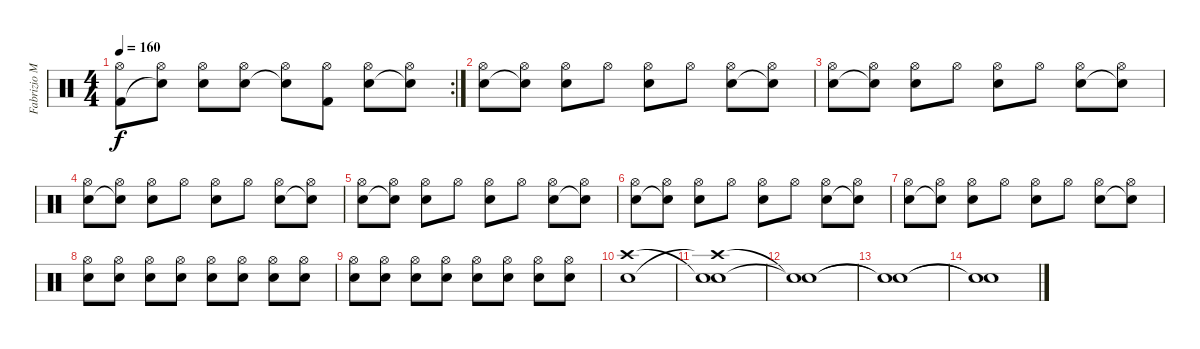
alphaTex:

\track ("Fabrizio Moretti" "Fabrizio M") {instrument percussion}
\staff {score}
\articulation defaults
\rc 2
\ts (4 4)
\tempo 160
\clef neutral
\ks c
("Hi-Hat (open)" "Kick (hit) 2").8{dy f} ("Hi-Hat (open)" "Snare (hit)"{t}).8 ("Hi-Hat (open)" "Electric Snare (hit)").8 ("Hi-Hat (open)" "Electric Snare (hit)").8 ("Hi-Hat (open)" "Snare (hit)"{t}).8 ("Hi-Hat (open)" "Kick (hit) 2").8 ("Hi-Hat (open)" "Electric Snare (hit)").8 ("Hi-Hat (open)" "Snare (hit)"{t}).8 |
("Hi-Hat (open)" "Electric Snare (hit)").8 ("Hi-Hat (open)" "Snare (hit)"{t}).8 ("Hi-Hat (open)" "Electric Snare (hit)").8 "Hi-Hat (open)".8 ("Hi-Hat (open)" "Electric Snare (hit)").8 "Hi-Hat (open)".8 ("Hi-Hat (open)" "Electric Snare (hit)").8 ("Hi-Hat (open)" "Snare (hit)"{t}).8 |
("Hi-Hat (open)" "Electric Snare (hit)").8 ("Hi-Hat (open)" "Snare (hit)"{t}).8 ("Hi-Hat (open)" "Electric Snare (hit)").8 "Hi-Hat (open)".8 ("Hi-Hat (open)" "Electric Snare (hit)").8 "Hi-Hat (open)".8 ("Hi-Hat (open)" "Electric Snare (hit)").8 ("Hi-Hat (open)" "Snare (hit)"{t}).8 |
("Hi-Hat (open)" "Electric Snare (hit)").8 ("Hi-Hat (open)" "Snare (hit)"{t}).8 ("Hi-Hat (open)" "Electric Snare (hit)").8 "Hi-Hat (open)".8 ("Hi-Hat (open)" "Electric Snare (hit)").8 "Hi-Hat (open)".8 ("Hi-Hat (open)" "Electric Snare (hit)").8 ("Hi-Hat (open)" "Snare (hit)"{t}).8 |
("Hi-Hat (open)" "Electric Snare (hit)").8 ("Hi-Hat (open)" "Snare (hit)"{t}).8 ("Hi-Hat (open)" "Electric Snare (hit)").8 "Hi-Hat (open)".8 ("Hi-Hat (open)" "Electric Snare (hit)").8 "Hi-Hat (open)".8 ("Hi-Hat (open)" "Electric Snare (hit)").8 ("Hi-Hat (open)" "Snare (hit)"{t}).8 |
("Hi-Hat (open)" "Electric Snare (hit)").8 ("Hi-Hat (open)" "Snare (hit)"{t}).8 ("Hi-Hat (open)" "Electric Snare (hit)").8 "Hi-Hat (open)".8 ("Hi-Hat (open)" "Electric Snare (hit)").8 "Hi-Hat (open)".8 ("Hi-Hat (open)" "Electric Snare (hit)").8 ("Hi-Hat (open)" "Snare (hit)"{t}).8 |
("Hi-Hat (open)" "Electric Snare (hit)").8 ("Hi-Hat (open)" "Snare (hit)"{t}).8 ("Hi-Hat (open)" "Electric Snare (hit)").8 "Hi-Hat (open)".8 ("Hi-Hat (open)" "Electric Snare (hit)").8 "Hi-Hat (open)".8 ("Hi-Hat (open)" "Electric Snare (hit)").8 ("Hi-Hat (open)" "Snare (hit)"{t}).8 |
("Hi-Hat (open)" "Electric Snare (hit)").8 ("Hi-Hat (open)" "Electric Snare (hit)").8 ("Hi-Hat (open)" "Electric Snare (hit)").8 ("Hi-Hat (open)" "Electric Snare (hit)").8 ("Hi-Hat (open)" "Electric Snare (hit)").8 ("Hi-Hat (open)" "Electric Snare (hit)").8 ("Hi-Hat (open)" "Electric Snare (hit)").8 ("Hi-Hat (open)" "Electric Snare (hit)").8 |
("Hi-Hat (open)" "Electric Snare (hit)").8 ("Hi-Hat (open)" "Electric Snare (hit)").8 ("Hi-Hat (open)" "Electric Snare (hit)").8 ("Hi-Hat (open)" "Electric Snare (hit)").8 ("Hi-Hat (open)" "Electric Snare (hit)").8 ("Hi-Hat (open)" "Electric Snare (hit)").8 ("Hi-Hat (open)" "Electric Snare (hit)").8 ("Hi-Hat (open)" "Electric Snare (hit)").8 |
("Crash high (hit)" "Electric Snare (hit)").1 |
("Snare (hit)"{t} "Crash high (hit)"{t} "Electric Snare (hit)").1 |
("Snare (hit)"{t} "Snare (hit)"{t}).1 |
("Snare (hit)"{t} "Snare (hit)"{t}).1 |
("Snare (hit)"{t} "Snare (hit)"{t}).1
